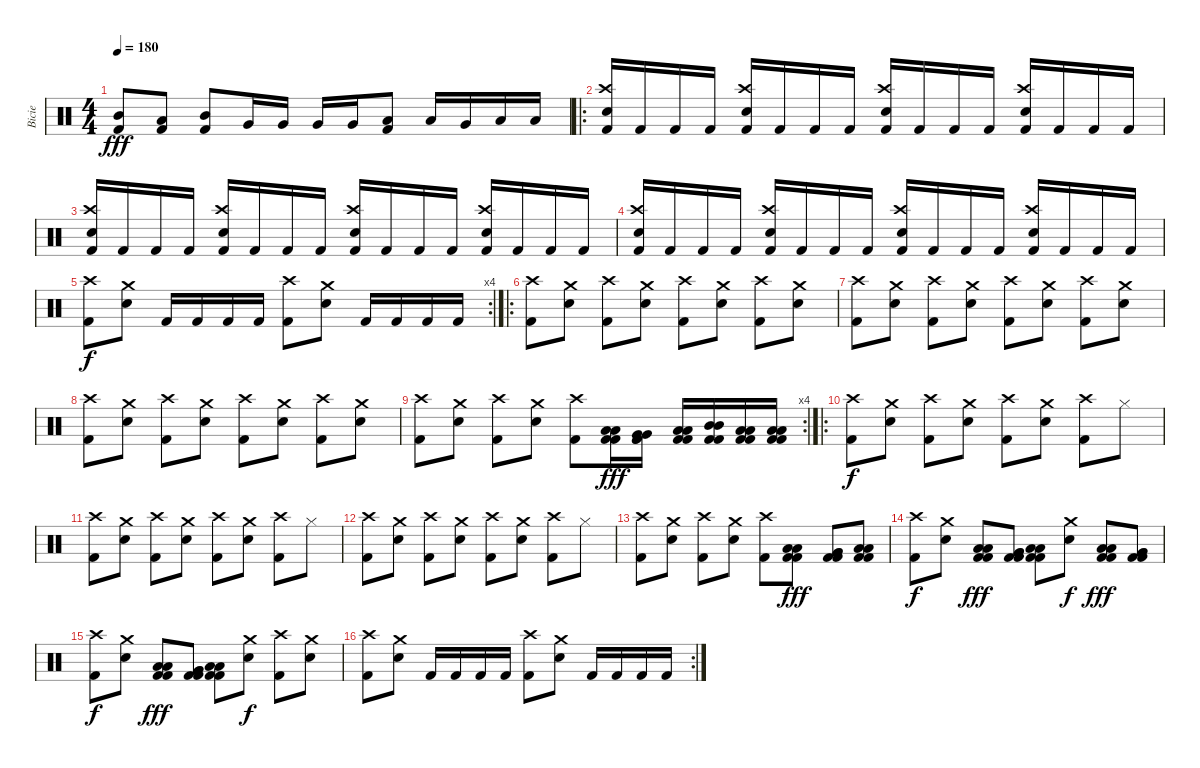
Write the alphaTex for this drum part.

\track ("Bicie" "Bicie") {instrument percussion}
\staff {score}
\articulation defaults
\ts (4 4)
\tempo 180
\clef neutral
\ks c
("Kick (hit) 2" "Mid Tom (hit)").8{dy fff} ("Kick (hit) 2" "Low Floor Tom (hit)").8 ("Kick (hit) 2" "Mid Tom (hit)").8 "Very Low Tom (hit)".16 "Very Low Tom (hit)".16 "Very Low Tom (hit)".16 "Very Low Tom (hit)".16 ("Kick (hit) 2" "Low Floor Tom (hit)").8 "Low Tom (hit)".16 "Very Low Tom (hit)".16 "Low Floor Tom (hit)".16 "Low Floor Tom (hit)".16 |
\ro
("Crash high (hit)" "Electric Snare (hit)" "Kick (hit) 2").16 "Kick (hit) 2".16 "Kick (hit) 2".16 "Kick (hit) 2".16 ("Crash high (hit)" "Electric Snare (hit)" "Kick (hit) 2").16 "Kick (hit) 2".16 "Kick (hit) 2".16 "Kick (hit) 2".16 ("Crash high (hit)" "Electric Snare (hit)" "Kick (hit) 2").16 "Kick (hit) 2".16 "Kick (hit) 2".16 "Kick (hit) 2".16 ("Crash high (hit)" "Electric Snare (hit)" "Kick (hit) 2").16 "Kick (hit) 2".16 "Kick (hit) 2".16 "Kick (hit) 2".16 |
("Crash high (hit)" "Electric Snare (hit)" "Kick (hit) 2").16 "Kick (hit) 2".16 "Kick (hit) 2".16 "Kick (hit) 2".16 ("Crash high (hit)" "Electric Snare (hit)" "Kick (hit) 2").16 "Kick (hit) 2".16 "Kick (hit) 2".16 "Kick (hit) 2".16 ("Crash high (hit)" "Electric Snare (hit)" "Kick (hit) 2").16 "Kick (hit) 2".16 "Kick (hit) 2".16 "Kick (hit) 2".16 ("Crash high (hit)" "Electric Snare (hit)" "Kick (hit) 2").16 "Kick (hit) 2".16 "Kick (hit) 2".16 "Kick (hit) 2".16 |
("Crash high (hit)" "Electric Snare (hit)" "Kick (hit) 2").16 "Kick (hit) 2".16 "Kick (hit) 2".16 "Kick (hit) 2".16 ("Crash high (hit)" "Electric Snare (hit)" "Kick (hit) 2").16 "Kick (hit) 2".16 "Kick (hit) 2".16 "Kick (hit) 2".16 ("Crash high (hit)" "Electric Snare (hit)" "Kick (hit) 2").16 "Kick (hit) 2".16 "Kick (hit) 2".16 "Kick (hit) 2".16 ("Crash high (hit)" "Electric Snare (hit)" "Kick (hit) 2").16 "Kick (hit) 2".16 "Kick (hit) 2".16 "Kick (hit) 2".16 |
\rc 4
("Crash high (hit)" "Kick (hit) 2").8{dy f} ("Crash medium (hit)" "Electric Snare (hit)").8 "Kick (hit) 2".16 "Kick (hit) 2".16 "Kick (hit) 2".16 "Kick (hit) 2".16 ("Crash high (hit)" "Kick (hit) 2").8 ("Crash medium (hit)" "Electric Snare (hit)").8 "Kick (hit) 2".16 "Kick (hit) 2".16 "Kick (hit) 2".16 "Kick (hit) 2".16 |
\ro
("Crash high (hit)" "Kick (hit) 2").8 ("Crash medium (hit)" "Electric Snare (hit)").8 ("Crash high (hit)" "Kick (hit) 2").8 ("Crash medium (hit)" "Electric Snare (hit)").8 ("Crash high (hit)" "Kick (hit) 2").8 ("Crash medium (hit)" "Electric Snare (hit)").8 ("Crash high (hit)" "Kick (hit) 2").8 ("Crash medium (hit)" "Electric Snare (hit)").8 |
("Crash high (hit)" "Kick (hit) 2").8 ("Crash medium (hit)" "Electric Snare (hit)").8 ("Crash high (hit)" "Kick (hit) 2").8 ("Crash medium (hit)" "Electric Snare (hit)").8 ("Crash high (hit)" "Kick (hit) 2").8 ("Crash medium (hit)" "Electric Snare (hit)").8 ("Crash high (hit)" "Kick (hit) 2").8 ("Crash medium (hit)" "Electric Snare (hit)").8 |
("Crash high (hit)" "Kick (hit) 2").8 ("Crash medium (hit)" "Electric Snare (hit)").8 ("Crash high (hit)" "Kick (hit) 2").8 ("Crash medium (hit)" "Electric Snare (hit)").8 ("Crash high (hit)" "Kick (hit) 2").8 ("Crash medium (hit)" "Electric Snare (hit)").8 ("Crash high (hit)" "Kick (hit) 2").8 ("Crash medium (hit)" "Electric Snare (hit)").8 |
\rc 4
("Crash high (hit)" "Kick (hit) 2").8 ("Crash medium (hit)" "Electric Snare (hit)").8 ("Crash high (hit)" "Kick (hit) 2").8 ("Crash medium (hit)" "Electric Snare (hit)").8 ("Crash high (hit)" "Kick (hit) 2").8 ("Low Tom (hit)" "Kick (hit) 2" "Low Tom (hit)" "Kick (hit) 2").16{dy fff} ("Very Low Tom (hit)" "Kick (hit) 2" "Very Low Tom (hit)" "Kick (hit) 2").16 ("Low Tom (hit)" "Kick (hit) 2" "Low Tom (hit)" "Kick (hit) 2").16 ("Mid Tom (hit)" "Kick (hit) 2" "Mid Tom (hit)" "Kick (hit) 2").16 ("Low Tom (hit)" "Kick (hit) 2" "Low Tom (hit)" "Kick (hit) 2").16 ("Low Floor Tom (hit)" "Kick (hit) 2" "Low Floor Tom (hit)" "Kick (hit) 2").16 |
\ro
("Crash high (hit)" "Kick (hit) 2").8{dy f} ("Crash medium (hit)" "Electric Snare (hit)").8 ("Crash high (hit)" "Kick (hit) 2").8 ("Crash medium (hit)" "Electric Snare (hit)").8 ("Crash high (hit)" "Kick (hit) 2").8 ("Crash medium (hit)" "Electric Snare (hit)").8 ("Crash high (hit)" "Kick (hit) 2").8 "Hi-Hat (closed)".8 |
("Crash high (hit)" "Kick (hit) 2").8 ("Crash medium (hit)" "Electric Snare (hit)").8 ("Crash high (hit)" "Kick (hit) 2").8 ("Crash medium (hit)" "Electric Snare (hit)").8 ("Crash high (hit)" "Kick (hit) 2").8 ("Crash medium (hit)" "Electric Snare (hit)").8 ("Crash high (hit)" "Kick (hit) 2").8 "Hi-Hat (closed)".8 |
("Crash high (hit)" "Kick (hit) 2").8 ("Crash medium (hit)" "Electric Snare (hit)").8 ("Crash high (hit)" "Kick (hit) 2").8 ("Crash medium (hit)" "Electric Snare (hit)").8 ("Crash high (hit)" "Kick (hit) 2").8 ("Crash medium (hit)" "Electric Snare (hit)").8 ("Crash high (hit)" "Kick (hit) 2").8 "Hi-Hat (closed)".8 |
("Crash high (hit)" "Kick (hit) 2").8 ("Crash medium (hit)" "Electric Snare (hit)").8 ("Crash high (hit)" "Kick (hit) 2").8 ("Crash medium (hit)" "Electric Snare (hit)").8 ("Crash high (hit)" "Kick (hit) 2").8 ("Low Tom (hit)" "Kick (hit) 2" "Low Tom (hit)" "Kick (hit) 2").8{dy fff} ("Very Low Tom (hit)" "Kick (hit) 2" "Very Low Tom (hit)" "Kick (hit) 2").8 ("Low Tom (hit)" "Kick (hit) 2" "Low Tom (hit)" "Kick (hit) 2").8 |
("Crash high (hit)" "Kick (hit) 2").8{dy f} ("Crash medium (hit)" "Electric Snare (hit)").8 ("Low Tom (hit)" "Kick (hit) 2" "Low Tom (hit)" "Kick (hit) 2").8{dy fff} ("Very Low Tom (hit)" "Kick (hit) 2" "Very Low Tom (hit)" "Kick (hit) 2").8 ("Low Tom (hit)" "Kick (hit) 2" "Low Tom (hit)" "Kick (hit) 2").8 ("Crash medium (hit)" "Electric Snare (hit)").8{dy f} ("Low Tom (hit)" "Kick (hit) 2" "Low Tom (hit)" "Kick (hit) 2").8{dy fff} ("Very Low Tom (hit)" "Kick (hit) 2" "Very Low Tom (hit)" "Kick (hit) 2").8 |
("Crash high (hit)" "Kick (hit) 2").8{dy f} ("Crash medium (hit)" "Electric Snare (hit)").8 ("Low Tom (hit)" "Kick (hit) 2" "Low Tom (hit)" "Kick (hit) 2").8{dy fff} ("Very Low Tom (hit)" "Kick (hit) 2" "Very Low Tom (hit)" "Kick (hit) 2").8 ("Low Floor Tom (hit)" "Kick (hit) 2" "Low Floor Tom (hit)" "Kick (hit) 2").8 ("Crash medium (hit)" "Electric Snare (hit)").8{dy f} ("Crash high (hit)" "Kick (hit) 2").8 ("Crash medium (hit)" "Electric Snare (hit)").8 |
\rc 2
("Crash high (hit)" "Kick (hit) 2").8 ("Crash medium (hit)" "Electric Snare (hit)").8 "Kick (hit) 2".16 "Kick (hit) 2".16 "Kick (hit) 2".16 "Kick (hit) 2".16 ("Crash high (hit)" "Kick (hit) 2").8 ("Crash medium (hit)" "Electric Snare (hit)").8 "Kick (hit) 2".16 "Kick (hit) 2".16 "Kick (hit) 2".16 "Kick (hit) 2".16
